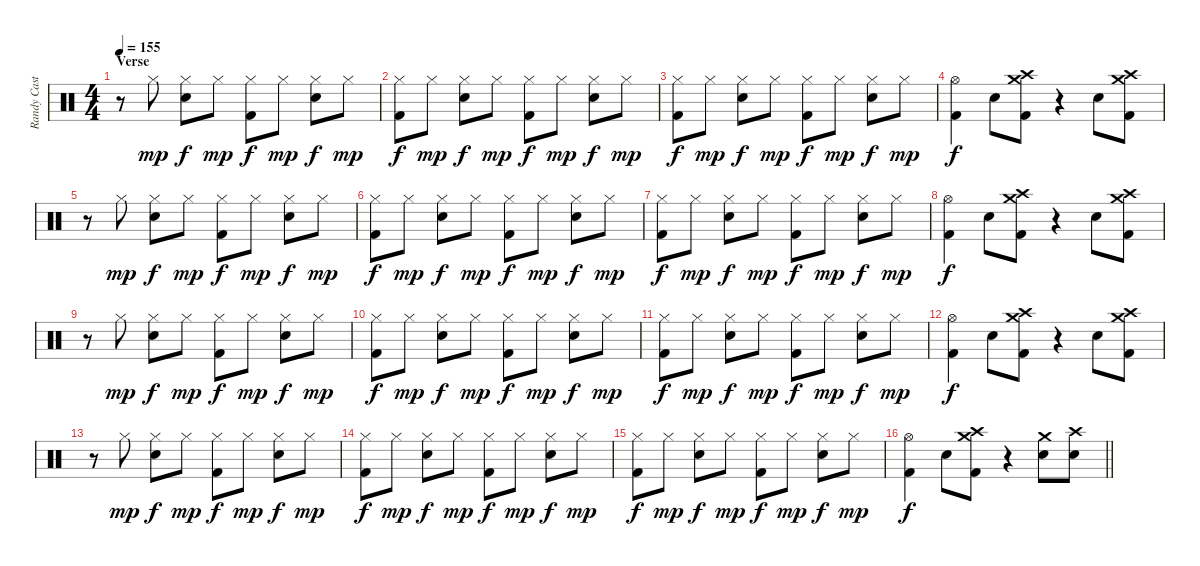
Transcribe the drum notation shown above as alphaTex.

\track ("Randy Castillo - Drums" "Randy Cast") {instrument percussion}
\staff {score}
\articulation defaults
\ts (4 4)
\section ("" "Verse")
\tempo 155
\clef neutral
\ks c
r.8{dy f} "Hi-Hat (closed)".8{dy mp} ("Hi-Hat (closed)" "Snare (hit) 2").8{dy f} "Hi-Hat (closed)".8{dy mp} ("Hi-Hat (closed)" "Kick (hit) 2").8{dy f} "Hi-Hat (closed)".8{dy mp} ("Hi-Hat (closed)" "Snare (hit) 2").8{dy f} "Hi-Hat (closed)".8{dy mp} |
("Hi-Hat (closed)" "Kick (hit) 2").8{dy f} "Hi-Hat (closed)".8{dy mp} ("Hi-Hat (closed)" "Snare (hit) 2").8{dy f} "Hi-Hat (closed)".8{dy mp} ("Hi-Hat (closed)" "Kick (hit) 2").8{dy f} "Hi-Hat (closed)".8{dy mp} ("Hi-Hat (closed)" "Snare (hit) 2").8{dy f} "Hi-Hat (closed)".8{dy mp} |
("Hi-Hat (closed)" "Kick (hit) 2").8{dy f} "Hi-Hat (closed)".8{dy mp} ("Hi-Hat (closed)" "Snare (hit) 2").8{dy f} "Hi-Hat (closed)".8{dy mp} ("Hi-Hat (closed)" "Kick (hit) 2").8{dy f} "Hi-Hat (closed)".8{dy mp} ("Hi-Hat (closed)" "Snare (hit) 2").8{dy f} "Hi-Hat (closed)".8{dy mp} |
("Hi-Hat (open)" "Kick (hit) 2").4{dy f} "Snare (hit) 2".8 ("Crash medium (hit)" "Crash high (hit)" "Kick (hit) 2").8 r.4 "Snare (hit) 2".8 ("Crash medium (hit)" "Crash high (hit)" "Kick (hit) 2").8 |
r.8 "Hi-Hat (closed)".8{dy mp} ("Hi-Hat (closed)" "Snare (hit) 2").8{dy f} "Hi-Hat (closed)".8{dy mp} ("Hi-Hat (closed)" "Kick (hit) 2").8{dy f} "Hi-Hat (closed)".8{dy mp} ("Hi-Hat (closed)" "Snare (hit) 2").8{dy f} "Hi-Hat (closed)".8{dy mp} |
("Hi-Hat (closed)" "Kick (hit) 2").8{dy f} "Hi-Hat (closed)".8{dy mp} ("Hi-Hat (closed)" "Snare (hit) 2").8{dy f} "Hi-Hat (closed)".8{dy mp} ("Hi-Hat (closed)" "Kick (hit) 2").8{dy f} "Hi-Hat (closed)".8{dy mp} ("Hi-Hat (closed)" "Snare (hit) 2").8{dy f} "Hi-Hat (closed)".8{dy mp} |
("Hi-Hat (closed)" "Kick (hit) 2").8{dy f} "Hi-Hat (closed)".8{dy mp} ("Hi-Hat (closed)" "Snare (hit) 2").8{dy f} "Hi-Hat (closed)".8{dy mp} ("Hi-Hat (closed)" "Kick (hit) 2").8{dy f} "Hi-Hat (closed)".8{dy mp} ("Hi-Hat (closed)" "Snare (hit) 2").8{dy f} "Hi-Hat (closed)".8{dy mp} |
("Hi-Hat (open)" "Kick (hit) 2").4{dy f} "Snare (hit) 2".8 ("Crash medium (hit)" "Crash high (hit)" "Kick (hit) 2").8 r.4 "Snare (hit) 2".8 ("Crash medium (hit)" "Crash high (hit)" "Kick (hit) 2").8 |
r.8 "Hi-Hat (closed)".8{dy mp} ("Hi-Hat (closed)" "Snare (hit) 2").8{dy f} "Hi-Hat (closed)".8{dy mp} ("Hi-Hat (closed)" "Kick (hit) 2").8{dy f} "Hi-Hat (closed)".8{dy mp} ("Hi-Hat (closed)" "Snare (hit) 2").8{dy f} "Hi-Hat (closed)".8{dy mp} |
("Hi-Hat (closed)" "Kick (hit) 2").8{dy f} "Hi-Hat (closed)".8{dy mp} ("Hi-Hat (closed)" "Snare (hit) 2").8{dy f} "Hi-Hat (closed)".8{dy mp} ("Hi-Hat (closed)" "Kick (hit) 2").8{dy f} "Hi-Hat (closed)".8{dy mp} ("Hi-Hat (closed)" "Snare (hit) 2").8{dy f} "Hi-Hat (closed)".8{dy mp} |
("Hi-Hat (closed)" "Kick (hit) 2").8{dy f} "Hi-Hat (closed)".8{dy mp} ("Hi-Hat (closed)" "Snare (hit) 2").8{dy f} "Hi-Hat (closed)".8{dy mp} ("Hi-Hat (closed)" "Kick (hit) 2").8{dy f} "Hi-Hat (closed)".8{dy mp} ("Hi-Hat (closed)" "Snare (hit) 2").8{dy f} "Hi-Hat (closed)".8{dy mp} |
("Hi-Hat (open)" "Kick (hit) 2").4{dy f} "Snare (hit) 2".8 ("Crash medium (hit)" "Crash high (hit)" "Kick (hit) 2").8 r.4 "Snare (hit) 2".8 ("Crash medium (hit)" "Crash high (hit)" "Kick (hit) 2").8 |
r.8 "Hi-Hat (closed)".8{dy mp} ("Hi-Hat (closed)" "Snare (hit) 2").8{dy f} "Hi-Hat (closed)".8{dy mp} ("Hi-Hat (closed)" "Kick (hit) 2").8{dy f} "Hi-Hat (closed)".8{dy mp} ("Hi-Hat (closed)" "Snare (hit) 2").8{dy f} "Hi-Hat (closed)".8{dy mp} |
("Hi-Hat (closed)" "Kick (hit) 2").8{dy f} "Hi-Hat (closed)".8{dy mp} ("Hi-Hat (closed)" "Snare (hit) 2").8{dy f} "Hi-Hat (closed)".8{dy mp} ("Hi-Hat (closed)" "Kick (hit) 2").8{dy f} "Hi-Hat (closed)".8{dy mp} ("Hi-Hat (closed)" "Snare (hit) 2").8{dy f} "Hi-Hat (closed)".8{dy mp} |
("Hi-Hat (closed)" "Kick (hit) 2").8{dy f} "Hi-Hat (closed)".8{dy mp} ("Hi-Hat (closed)" "Snare (hit) 2").8{dy f} "Hi-Hat (closed)".8{dy mp} ("Hi-Hat (closed)" "Kick (hit) 2").8{dy f} "Hi-Hat (closed)".8{dy mp} ("Hi-Hat (closed)" "Snare (hit) 2").8{dy f} "Hi-Hat (closed)".8{dy mp} |
\barLineRight lightlight
("Hi-Hat (open)" "Kick (hit) 2").4{dy f} "Snare (hit) 2".8 ("Crash medium (hit)" "Crash high (hit)" "Kick (hit) 2").8 r.4 ("Crash medium (hit)" "Snare (hit) 2").8 ("Crash high (hit)" "Snare (hit) 2").8
